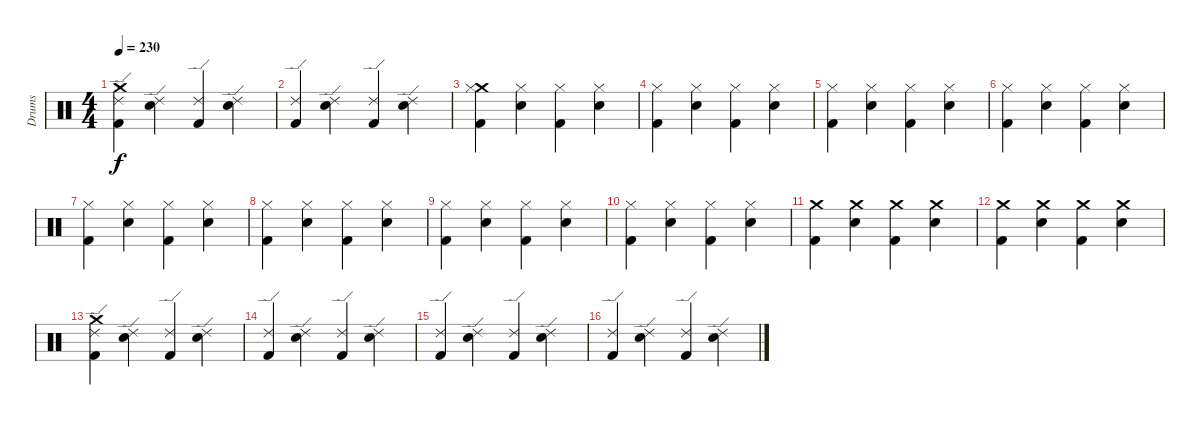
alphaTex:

\track ("Drums" "Drums") {instrument percussion}
\staff {score}
\articulation defaults
\ts (4 4)
\tempo 230
\clef neutral
\ks c
("Crash medium (hit)" "Ride (edge) 2" "Kick (hit) 2").4{dy f} ("Ride (edge) 2" "Snare (hit) 2").4 ("Ride (edge) 2" "Kick (hit) 2").4 ("Ride (edge) 2" "Snare (hit) 2").4 |
("Ride (edge) 2" "Kick (hit) 2").4 ("Ride (edge) 2" "Snare (hit) 2").4 ("Ride (edge) 2" "Kick (hit) 2").4 ("Ride (edge) 2" "Snare (hit) 2").4 |
("Crash medium (hit)" "Hi-Hat (closed)" "Kick (hit) 2").4 ("Hi-Hat (closed)" "Snare (hit) 2").4 ("Hi-Hat (closed)" "Kick (hit) 2").4 ("Hi-Hat (closed)" "Snare (hit) 2").4 |
("Hi-Hat (closed)" "Kick (hit) 2").4 ("Hi-Hat (closed)" "Snare (hit) 2").4 ("Hi-Hat (closed)" "Kick (hit) 2").4 ("Hi-Hat (closed)" "Snare (hit) 2").4 |
("Hi-Hat (closed)" "Kick (hit) 2").4 ("Hi-Hat (closed)" "Snare (hit) 2").4 ("Hi-Hat (closed)" "Kick (hit) 2").4 ("Hi-Hat (closed)" "Snare (hit) 2").4 |
("Hi-Hat (closed)" "Kick (hit) 2").4 ("Hi-Hat (closed)" "Snare (hit) 2").4 ("Hi-Hat (closed)" "Kick (hit) 2").4 ("Hi-Hat (closed)" "Snare (hit) 2").4 |
("Hi-Hat (closed)" "Kick (hit) 2").4 ("Hi-Hat (closed)" "Snare (hit) 2").4 ("Hi-Hat (closed)" "Kick (hit) 2").4 ("Hi-Hat (closed)" "Snare (hit) 2").4 |
("Hi-Hat (closed)" "Kick (hit) 2").4 ("Hi-Hat (closed)" "Snare (hit) 2").4 ("Hi-Hat (closed)" "Kick (hit) 2").4 ("Hi-Hat (closed)" "Snare (hit) 2").4 |
("Hi-Hat (closed)" "Kick (hit) 2").4 ("Hi-Hat (closed)" "Snare (hit) 2").4 ("Hi-Hat (closed)" "Kick (hit) 2").4 ("Hi-Hat (closed)" "Snare (hit) 2").4 |
("Hi-Hat (closed)" "Kick (hit) 2").4 ("Hi-Hat (closed)" "Snare (hit) 2").4 ("Hi-Hat (closed)" "Kick (hit) 2").4 ("Hi-Hat (closed)" "Snare (hit) 2").4 |
("Crash medium (hit)" "Kick (hit) 2").4 ("Crash medium (hit)" "Snare (hit) 2").4 ("Crash medium (hit)" "Kick (hit) 2").4 ("Crash medium (hit)" "Snare (hit) 2").4 |
("Crash medium (hit)" "Kick (hit) 2").4 ("Crash medium (hit)" "Snare (hit) 2").4 ("Crash medium (hit)" "Kick (hit) 2").4 ("Crash medium (hit)" "Snare (hit) 2").4 |
("Crash medium (hit)" "Ride (edge) 2" "Kick (hit) 2").4 ("Ride (edge) 2" "Snare (hit) 2").4 ("Ride (edge) 2" "Kick (hit) 2").4 ("Ride (edge) 2" "Snare (hit) 2").4 |
("Ride (edge) 2" "Kick (hit) 2").4 ("Ride (edge) 2" "Snare (hit) 2").4 ("Ride (edge) 2" "Kick (hit) 2").4 ("Ride (edge) 2" "Snare (hit) 2").4 |
("Ride (edge) 2" "Kick (hit) 2").4 ("Ride (edge) 2" "Snare (hit) 2").4 ("Ride (edge) 2" "Kick (hit) 2").4 ("Ride (edge) 2" "Snare (hit) 2").4 |
("Ride (edge) 2" "Kick (hit) 2").4 ("Ride (edge) 2" "Snare (hit) 2").4 ("Ride (edge) 2" "Kick (hit) 2").4 ("Ride (edge) 2" "Snare (hit) 2").4
